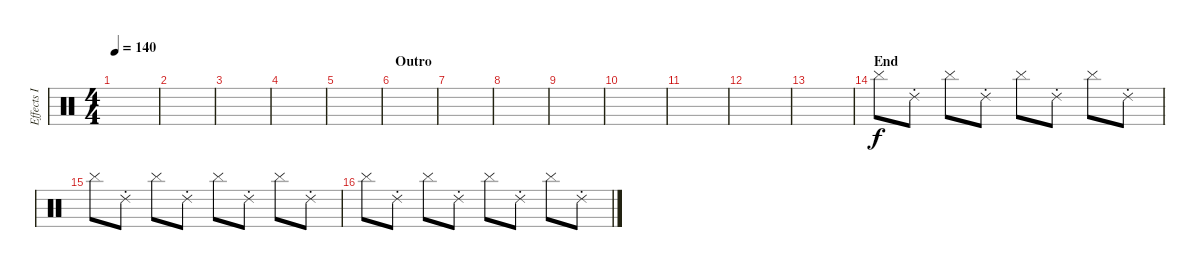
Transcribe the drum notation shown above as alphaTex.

\track ("Effects I" "Effects I") {instrument percussion}
\staff {score}
\articulation defaults
\ts (4 4)
\tempo 140
\clef neutral
\ks c
|
|
|
|
|
\section ("" "Outro")
|
|
|
|
|
|
|
|
\section ("" "End")
"Cymbal (hit)".8{volume 0} "Ride (choke) 2".8 "Cymbal (hit)".8 "Ride (choke) 2".8 "Cymbal (hit)".8 "Ride (choke) 2".8 "Cymbal (hit)".8 "Ride (choke) 2".8 |
"Cymbal (hit)".8 "Ride (choke) 2".8 "Cymbal (hit)".8 "Ride (choke) 2".8 "Cymbal (hit)".8 "Ride (choke) 2".8 "Cymbal (hit)".8 "Ride (choke) 2".8 |
"Cymbal (hit)".8 "Ride (choke) 2".8 "Cymbal (hit)".8 "Ride (choke) 2".8 "Cymbal (hit)".8 "Ride (choke) 2".8 "Cymbal (hit)".8 "Ride (choke) 2".8
